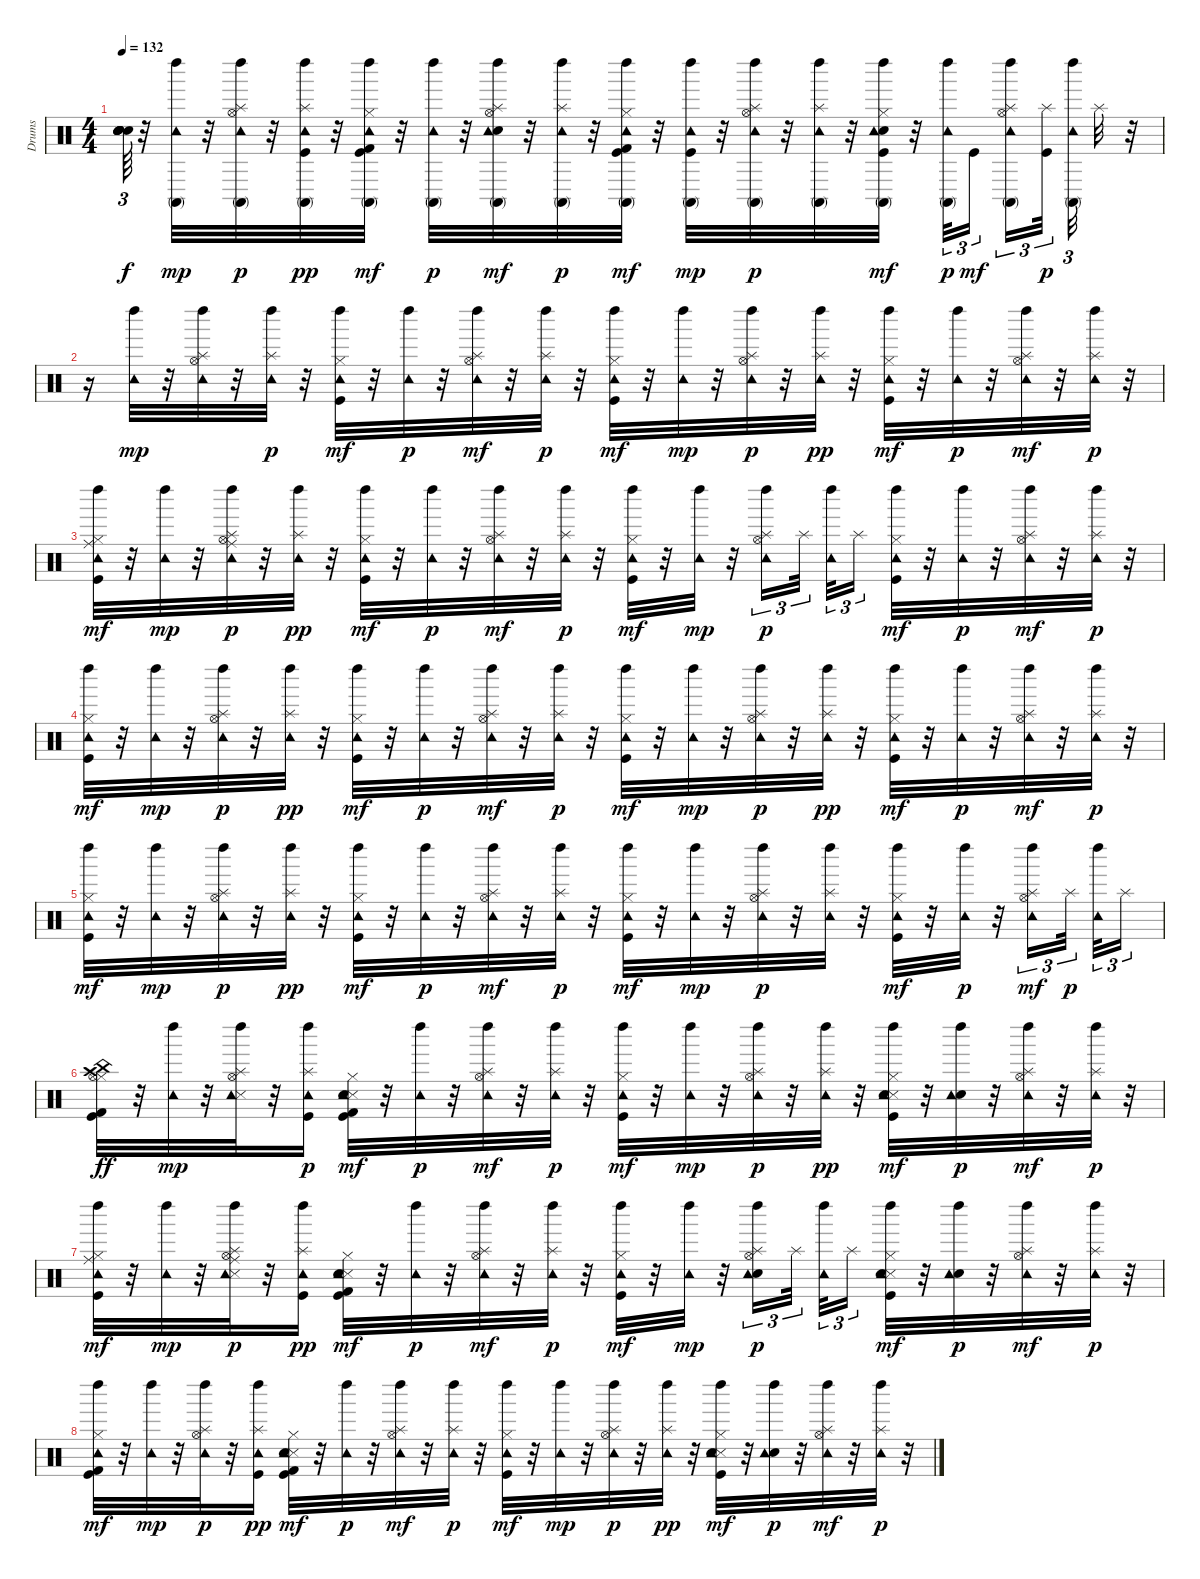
\track ("Drums" "Drums") {instrument percussion}
\staff {score}
\articulation defaults
\ts (4 4)
\tempo 132
\clef neutral
\ks c
("Snare (hit)"{t} "Snare (hit)"{t} "Snare (hit)"{t} "Snare (hit)"{t} "Snare (hit)"{t} "Snare (hit)"{t}).64{tu (3 2) dy f} r.32 ("Tambourine (hit)" "Conga high (mute)" "Left Maraca (hit)").32{dy mp} r.32 ("Hi-Hat (open)" "Tambourine (hit)" "Splash (hit)" "Conga high (mute)" "Left Maraca (hit)").32{dy p} r.32 ("Kick (hit)" "Tambourine (hit)" "Splash (hit)" "Conga high (mute)" "Left Maraca (hit)").32{dy pp} r.32 ("Kick (hit)" "Kick (hit) 2" "Hi-Hat (closed)" "Tambourine (hit)" "Conga high (mute)" "Left Maraca (hit)").32{dy mf} r.32 ("Tambourine (hit)" "Conga high (mute)" "Left Maraca (hit)").32{dy p} r.32 ("Hand Clap (hit)" "Hi-Hat (open)" "Tambourine (hit)" "Splash (hit)" "Conga high (mute)" "Left Maraca (hit)").32{dy mf} r.32 ("Tambourine (hit)" "Splash (hit)" "Conga high (mute)" "Left Maraca (hit)").32{dy p} r.32 ("Kick (hit)" "Kick (hit) 2" "Hi-Hat (closed)" "Tambourine (hit)" "Conga high (mute)" "Left Maraca (hit)").32{dy mf} r.32 ("Kick (hit)" "Tambourine (hit)" "Conga high (mute)" "Left Maraca (hit)").32{dy mp} r.32 ("Hi-Hat (open)" "Tambourine (hit)" "Splash (hit)" "Conga high (mute)" "Left Maraca (hit)").32{dy p} r.32 ("Tambourine (hit)" "Splash (hit)" "Conga high (mute)" "Left Maraca (hit)").32 r.32 ("Kick (hit)" "Hand Clap (hit)" "Hi-Hat (closed)" "Tambourine (hit)" "Conga high (mute)" "Left Maraca (hit)").32{dy mf} r.32 ("Tambourine (hit)" "Conga high (mute)" "Left Maraca (hit)").32{tu (3 2) dy p} "Kick (hit)".16{tu (3 2) dy mf beam splitsecondary} ("Hi-Hat (open)" "Tambourine (hit)" "Splash (hit)" "Conga high (mute)" "Left Maraca (hit)").16{tu (3 2)} ("Kick (hit)" "Splash (hit)").32{tu (3 2) dy p beam splitsecondary} ("Tambourine (hit)" "Conga high (mute)" "Left Maraca (hit)").32{tu (3 2)} "Splash (hit)".32 r.32 |
r.16 ("Tambourine (hit)" "Left Maraca (hit)").32{dy mp} r.32 ("Hi-Hat (open)" "Tambourine (hit)" "Splash (hit)" "Left Maraca (hit)").32 r.32 ("Tambourine (hit)" "Splash (hit)" "Left Maraca (hit)").32{dy p} r.32 ("Kick (hit)" "Hi-Hat (closed)" "Tambourine (hit)" "Left Maraca (hit)").32{dy mf} r.32 ("Tambourine (hit)" "Left Maraca (hit)").32{dy p} r.32 ("Hi-Hat (open)" "Tambourine (hit)" "Splash (hit)" "Left Maraca (hit)").32{dy mf} r.32 ("Tambourine (hit)" "Splash (hit)" "Left Maraca (hit)").32{dy p} r.32 ("Kick (hit)" "Hi-Hat (closed)" "Tambourine (hit)" "Left Maraca (hit)").32{dy mf} r.32 ("Tambourine (hit)" "Left Maraca (hit)").32{dy mp} r.32 ("Hi-Hat (open)" "Tambourine (hit)" "Splash (hit)" "Left Maraca (hit)").32{dy p} r.32 ("Tambourine (hit)" "Splash (hit)" "Left Maraca (hit)").32{dy pp} r.32 ("Kick (hit)" "Hi-Hat (closed)" "Tambourine (hit)" "Left Maraca (hit)").32{dy mf} r.32 ("Tambourine (hit)" "Left Maraca (hit)").32{dy p} r.32 ("Hi-Hat (open)" "Tambourine (hit)" "Splash (hit)" "Left Maraca (hit)").32{dy mf} r.32 ("Tambourine (hit)" "Splash (hit)" "Left Maraca (hit)").32{dy p} r.32 |
("Kick (hit)" "Hi-Hat (closed)" "Ride (middle)" "Tambourine (hit)" "Left Maraca (hit)").32{dy mf} r.32 ("Tambourine (hit)" "Left Maraca (hit)").32{dy mp} r.32 ("Hi-Hat (open)" "Ride (middle)" "Tambourine (hit)" "Splash (hit)" "Left Maraca (hit)").32{dy p} r.32 ("Tambourine (hit)" "Splash (hit)" "Left Maraca (hit)").32{dy pp} r.32 ("Kick (hit)" "Hi-Hat (closed)" "Tambourine (hit)" "Left Maraca (hit)").32{dy mf} r.32 ("Tambourine (hit)" "Left Maraca (hit)").32{dy p} r.32 ("Hi-Hat (open)" "Tambourine (hit)" "Splash (hit)" "Left Maraca (hit)").32{dy mf} r.32 ("Tambourine (hit)" "Splash (hit)" "Left Maraca (hit)").32{dy p} r.32 ("Kick (hit)" "Hi-Hat (closed)" "Tambourine (hit)" "Left Maraca (hit)").32{dy mf} r.32 ("Tambourine (hit)" "Left Maraca (hit)").32{dy mp} r.32 ("Hi-Hat (open)" "Tambourine (hit)" "Splash (hit)" "Left Maraca (hit)").16{tu (3 2) dy p} "Splash (hit)".32{tu (3 2) beam splitsecondary} ("Tambourine (hit)" "Left Maraca (hit)").32{tu (3 2)} "Splash (hit)".16{tu (3 2)} ("Kick (hit)" "Hi-Hat (closed)" "Tambourine (hit)" "Left Maraca (hit)").32{dy mf} r.32 ("Tambourine (hit)" "Left Maraca (hit)").32{dy p} r.32 ("Hi-Hat (open)" "Tambourine (hit)" "Splash (hit)" "Left Maraca (hit)").32{dy mf} r.32 ("Tambourine (hit)" "Splash (hit)" "Left Maraca (hit)").32{dy p} r.32 |
("Kick (hit)" "Hi-Hat (closed)" "Tambourine (hit)" "Left Maraca (hit)").32{dy mf} r.32 ("Tambourine (hit)" "Left Maraca (hit)").32{dy mp} r.32 ("Hi-Hat (open)" "Tambourine (hit)" "Splash (hit)" "Left Maraca (hit)").32{dy p} r.32 ("Tambourine (hit)" "Splash (hit)" "Left Maraca (hit)").32{dy pp} r.32 ("Kick (hit)" "Hi-Hat (closed)" "Tambourine (hit)" "Left Maraca (hit)").32{dy mf} r.32 ("Tambourine (hit)" "Left Maraca (hit)").32{dy p} r.32 ("Hi-Hat (open)" "Tambourine (hit)" "Splash (hit)" "Left Maraca (hit)").32{dy mf} r.32 ("Tambourine (hit)" "Splash (hit)" "Left Maraca (hit)").32{dy p} r.32 ("Kick (hit)" "Hi-Hat (closed)" "Tambourine (hit)" "Left Maraca (hit)").32{dy mf} r.32 ("Tambourine (hit)" "Left Maraca (hit)").32{dy mp} r.32 ("Hi-Hat (open)" "Tambourine (hit)" "Splash (hit)" "Left Maraca (hit)").32{dy p} r.32 ("Tambourine (hit)" "Splash (hit)" "Left Maraca (hit)").32{dy pp} r.32 ("Kick (hit)" "Hi-Hat (closed)" "Tambourine (hit)" "Left Maraca (hit)").32{dy mf} r.32 ("Tambourine (hit)" "Left Maraca (hit)").32{dy p} r.32 ("Hi-Hat (open)" "Tambourine (hit)" "Splash (hit)" "Left Maraca (hit)").32{dy mf} r.32 ("Tambourine (hit)" "Splash (hit)" "Left Maraca (hit)").32{dy p} r.32 |
("Kick (hit)" "Hi-Hat (closed)" "Tambourine (hit)" "Left Maraca (hit)").32{dy mf} r.32 ("Tambourine (hit)" "Left Maraca (hit)").32{dy mp} r.32 ("Hi-Hat (open)" "Tambourine (hit)" "Splash (hit)" "Left Maraca (hit)").32{dy p} r.32 ("Tambourine (hit)" "Splash (hit)" "Left Maraca (hit)").32{dy pp} r.32 ("Kick (hit)" "Hi-Hat (closed)" "Tambourine (hit)" "Left Maraca (hit)").32{dy mf} r.32 ("Tambourine (hit)" "Left Maraca (hit)").32{dy p} r.32 ("Hi-Hat (open)" "Tambourine (hit)" "Splash (hit)" "Left Maraca (hit)").32{dy mf} r.32 ("Tambourine (hit)" "Splash (hit)" "Left Maraca (hit)").32{dy p} r.32 ("Kick (hit)" "Hi-Hat (closed)" "Tambourine (hit)" "Left Maraca (hit)").32{dy mf} r.32 ("Tambourine (hit)" "Left Maraca (hit)").32{dy mp} r.32 ("Hi-Hat (open)" "Tambourine (hit)" "Splash (hit)" "Left Maraca (hit)").32{dy p} r.32 ("Tambourine (hit)" "Splash (hit)" "Left Maraca (hit)").32 r.32 ("Kick (hit)" "Hi-Hat (closed)" "Tambourine (hit)" "Left Maraca (hit)").32{dy mf} r.32 ("Tambourine (hit)" "Left Maraca (hit)").32{dy p} r.32 ("Hi-Hat (open)" "Tambourine (hit)" "Splash (hit)" "Left Maraca (hit)").16{tu (3 2) dy mf} "Splash (hit)".32{tu (3 2) dy p beam splitsecondary} ("Tambourine (hit)" "Left Maraca (hit)").32{tu (3 2)} "Splash (hit)".16{tu (3 2)} |
("Kick (hit)" "Kick (hit) 2" "Hi-Hat (closed)" "Hi-Hat (open)" "Crash high (hit)" "China (hit)").32{dy ff} r.32 ("Tambourine (hit)" "Left Maraca (hit)").32{dy mp} r.32 ("Snare (side stick) 3" "Hi-Hat (open)" "Tambourine (hit)" "Splash (hit)" "Left Maraca (hit)").32 r.32 ("Kick (hit)" "Tambourine (hit)" "Splash (hit)" "Left Maraca (hit)").16{dy p} ("Kick (hit)" "Kick (hit) 2" "Snare (side stick) 3" "Hand Clap (hit)" "Hi-Hat (closed)" "Tambourine (hit)").32{dy mf} r.32 ("Tambourine (hit)" "Left Maraca (hit)").32{dy p} r.32 ("Hi-Hat (open)" "Tambourine (hit)" "Splash (hit)" "Left Maraca (hit)").32{dy mf} r.32 ("Tambourine (hit)" "Splash (hit)" "Left Maraca (hit)").32{dy p} r.32 ("Kick (hit)" "Hi-Hat (closed)" "Tambourine (hit)" "Left Maraca (hit)").32{dy mf} r.32 ("Tambourine (hit)" "Left Maraca (hit)").32{dy mp} r.32 ("Hi-Hat (open)" "Tambourine (hit)" "Splash (hit)" "Left Maraca (hit)").32{dy p} r.32 ("Tambourine (hit)" "Splash (hit)" "Left Maraca (hit)").32{dy pp} r.32 ("Kick (hit)" "Snare (side stick) 3" "Hand Clap (hit)" "Hi-Hat (closed)" "Tambourine (hit)" "Left Maraca (hit)").32{dy mf} r.32 ("Hand Clap (hit)" "Tambourine (hit)" "Left Maraca (hit)").32{dy p} r.32 ("Hi-Hat (open)" "Tambourine (hit)" "Splash (hit)" "Left Maraca (hit)").32{dy mf} r.32 ("Tambourine (hit)" "Splash (hit)" "Left Maraca (hit)").32{dy p} r.32 |
("Kick (hit)" "Hi-Hat (closed)" "Ride (middle)" "Tambourine (hit)" "Left Maraca (hit)").32{dy mf} r.32 ("Tambourine (hit)" "Left Maraca (hit)").32{dy mp} r.32 ("Snare (side stick) 3" "Hi-Hat (open)" "Ride (middle)" "Tambourine (hit)" "Splash (hit)" "Left Maraca (hit)").32{dy p} r.32 ("Kick (hit)" "Tambourine (hit)" "Splash (hit)" "Left Maraca (hit)").16{dy pp} ("Kick (hit)" "Kick (hit) 2" "Snare (side stick) 3" "Hand Clap (hit)" "Hi-Hat (closed)" "Tambourine (hit)").32{dy mf} r.32 ("Tambourine (hit)" "Left Maraca (hit)").32{dy p} r.32 ("Hi-Hat (open)" "Tambourine (hit)" "Splash (hit)" "Left Maraca (hit)").32{dy mf} r.32 ("Tambourine (hit)" "Splash (hit)" "Left Maraca (hit)").32{dy p} r.32 ("Kick (hit)" "Hi-Hat (closed)" "Tambourine (hit)" "Left Maraca (hit)").32{dy mf} r.32 ("Tambourine (hit)" "Left Maraca (hit)").32{dy mp} r.32 ("Hand Clap (hit)" "Hi-Hat (open)" "Tambourine (hit)" "Splash (hit)" "Left Maraca (hit)").16{tu (3 2) dy p} "Splash (hit)".32{tu (3 2) beam splitsecondary} ("Tambourine (hit)" "Left Maraca (hit)").32{tu (3 2)} "Splash (hit)".16{tu (3 2)} ("Kick (hit)" "Snare (side stick) 3" "Hand Clap (hit)" "Hi-Hat (closed)" "Tambourine (hit)" "Left Maraca (hit)").32{dy mf} r.32 ("Hand Clap (hit)" "Tambourine (hit)" "Left Maraca (hit)").32{dy p} r.32 ("Hi-Hat (open)" "Tambourine (hit)" "Splash (hit)" "Left Maraca (hit)").32{dy mf} r.32 ("Tambourine (hit)" "Splash (hit)" "Left Maraca (hit)").32{dy p} r.32 |
("Kick (hit)" "Kick (hit) 2" "Hi-Hat (closed)" "Tambourine (hit)" "Left Maraca (hit)").32{dy mf} r.32 ("Tambourine (hit)" "Left Maraca (hit)").32{dy mp} r.32 ("Hi-Hat (open)" "Tambourine (hit)" "Splash (hit)" "Left Maraca (hit)").32{dy p} r.32 ("Kick (hit)" "Tambourine (hit)" "Splash (hit)" "Left Maraca (hit)").16{dy pp} ("Kick (hit)" "Kick (hit) 2" "Snare (side stick) 3" "Hand Clap (hit)" "Hi-Hat (closed)" "Tambourine (hit)").32{dy mf} r.32 ("Tambourine (hit)" "Left Maraca (hit)").32{dy p} r.32 ("Hi-Hat (open)" "Tambourine (hit)" "Splash (hit)" "Left Maraca (hit)").32{dy mf} r.32 ("Tambourine (hit)" "Splash (hit)" "Left Maraca (hit)").32{dy p} r.32 ("Kick (hit)" "Hi-Hat (closed)" "Tambourine (hit)" "Left Maraca (hit)").32{dy mf} r.32 ("Tambourine (hit)" "Left Maraca (hit)").32{dy mp} r.32 ("Hi-Hat (open)" "Tambourine (hit)" "Splash (hit)" "Left Maraca (hit)").32{dy p} r.32 ("Tambourine (hit)" "Splash (hit)" "Left Maraca (hit)").32{dy pp} r.32 ("Kick (hit)" "Snare (side stick) 3" "Hand Clap (hit)" "Hi-Hat (closed)" "Tambourine (hit)" "Left Maraca (hit)").32{dy mf} r.32 ("Hand Clap (hit)" "Tambourine (hit)" "Left Maraca (hit)").32{dy p} r.32 ("Hi-Hat (open)" "Tambourine (hit)" "Splash (hit)" "Left Maraca (hit)").32{dy mf} r.32 ("Tambourine (hit)" "Splash (hit)" "Left Maraca (hit)").32{dy p} r.32
